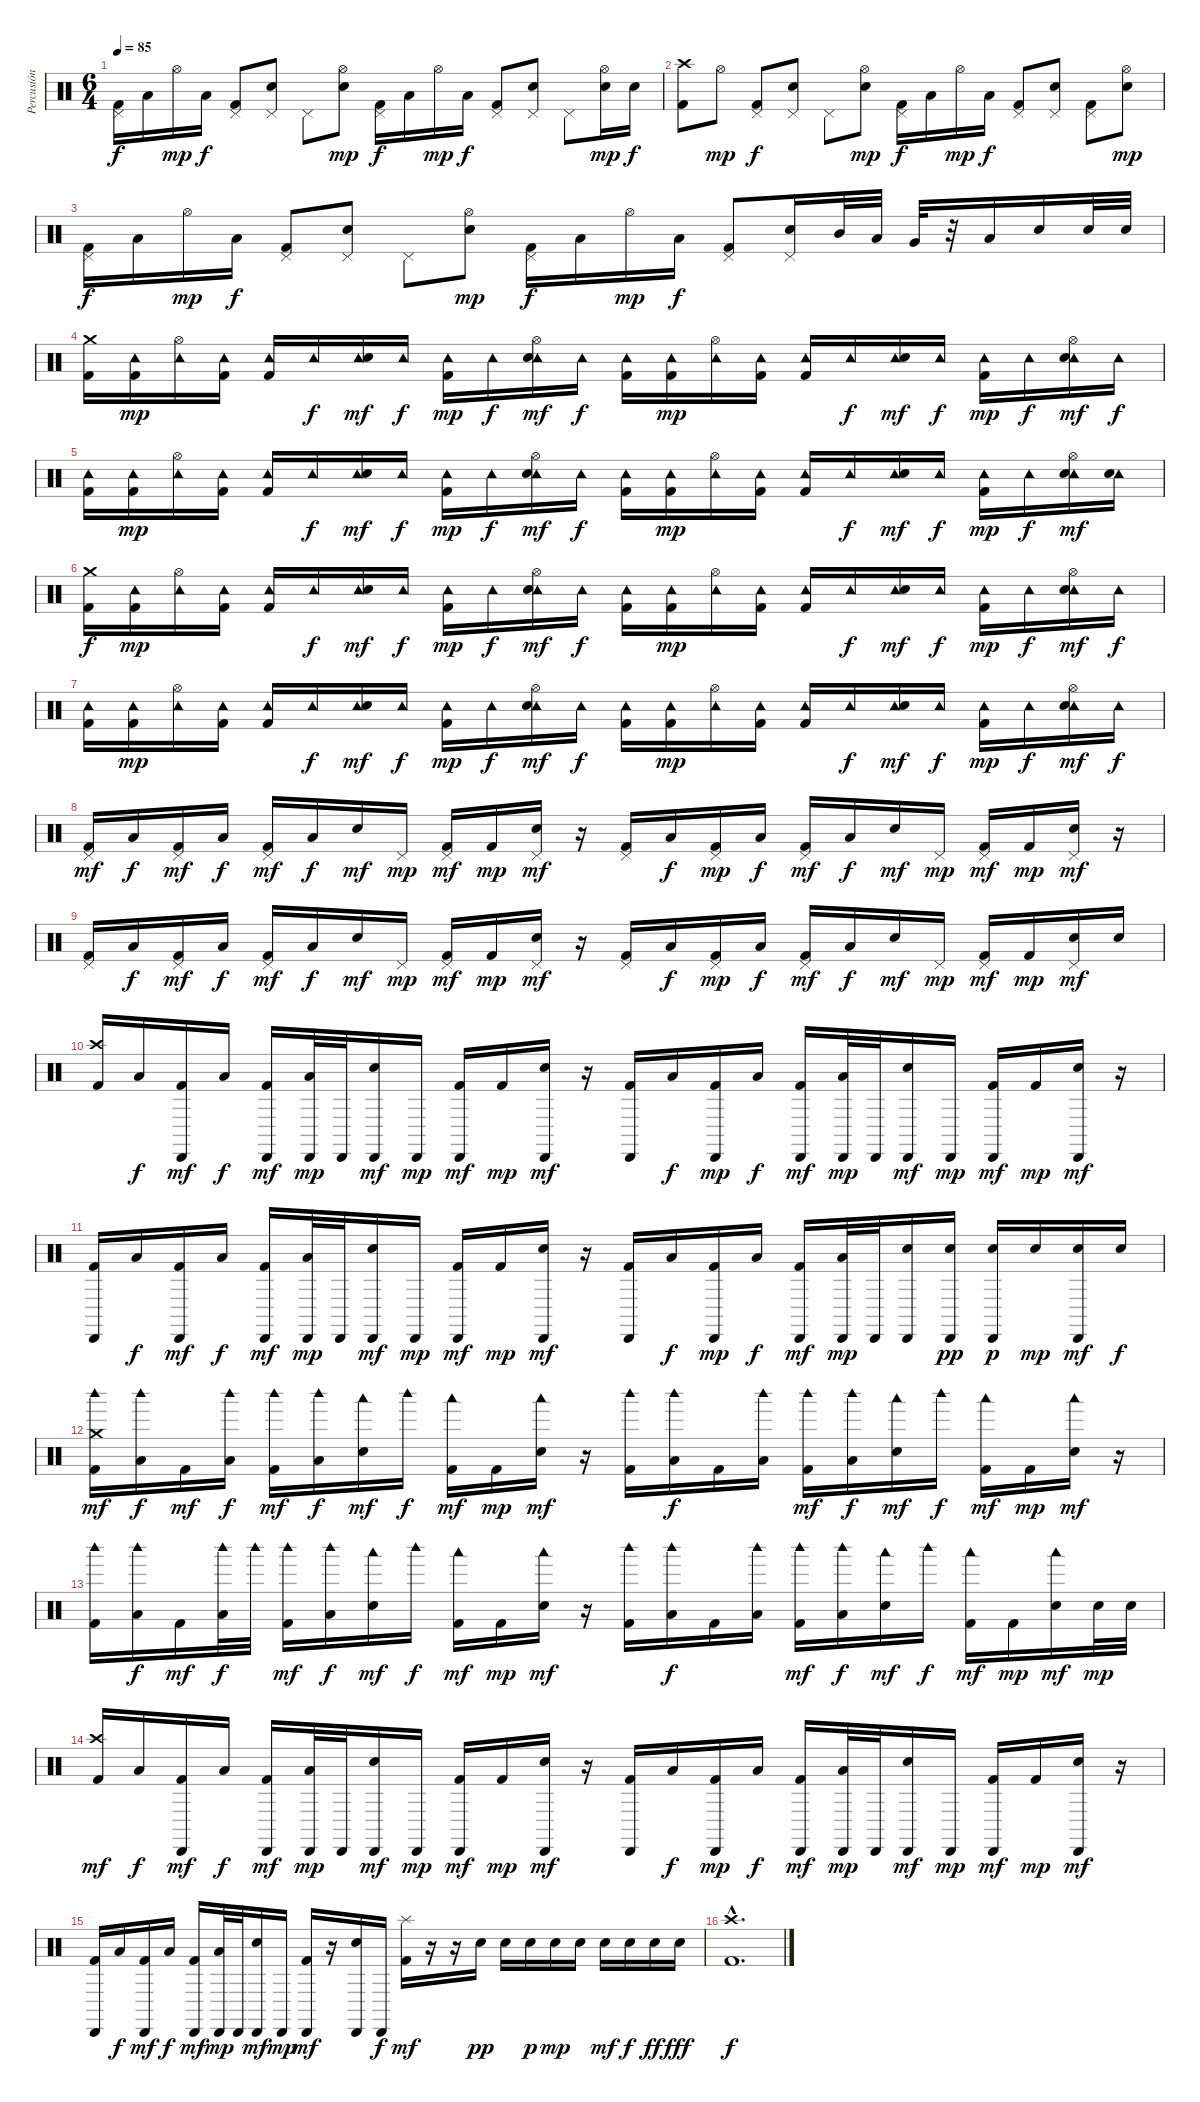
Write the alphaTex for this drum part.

\track ("Percusión" "Percusión") {instrument percussion}
\staff {score}
\articulation defaults
\ts (6 4)
\tempo 85
\clef neutral
\ks c
("Pedal Hi-Hat (hit)" "Kick (hit) 2").16{dy f} "Low Floor Tom (hit)".16 "Hi-Hat (open)".16{dy mp} "Low Floor Tom (hit)".16{dy f} ("Pedal Hi-Hat (hit)" "Kick (hit) 2").8 ("Pedal Hi-Hat (hit)" "Electric Snare (hit)").8 "Pedal Hi-Hat (hit)".8 ("Hi-Hat (open)" "Electric Snare (hit)").8{dy mp} ("Pedal Hi-Hat (hit)" "Kick (hit) 2").16{dy f} "Low Floor Tom (hit)".16 "Hi-Hat (open)".16{dy mp} "Low Floor Tom (hit)".16{dy f} ("Pedal Hi-Hat (hit)" "Kick (hit) 2").8 ("Pedal Hi-Hat (hit)" "Electric Snare (hit)").8 "Pedal Hi-Hat (hit)".8 ("Hi-Hat (open)" "Electric Snare (hit)").16{dy mp} "Electric Snare (hit)".16{dy f} |
("Crash high (hit)" "Kick (hit) 2").8 "Hi-Hat (open)".8{dy mp} ("Pedal Hi-Hat (hit)" "Kick (hit) 2").8{dy f} ("Pedal Hi-Hat (hit)" "Electric Snare (hit)").8 "Pedal Hi-Hat (hit)".8 ("Hi-Hat (open)" "Electric Snare (hit)").8{dy mp} ("Pedal Hi-Hat (hit)" "Kick (hit) 2").16{dy f} "Low Floor Tom (hit)".16 "Hi-Hat (open)".16{dy mp} "Low Floor Tom (hit)".16{dy f} ("Pedal Hi-Hat (hit)" "Kick (hit) 2").8 ("Pedal Hi-Hat (hit)" "Electric Snare (hit)").8 ("Pedal Hi-Hat (hit)" "Kick (hit) 2").8 ("Hi-Hat (open)" "Electric Snare (hit)").8{dy mp} |
("Pedal Hi-Hat (hit)" "Kick (hit) 2").16{dy f} "Low Floor Tom (hit)".16 "Hi-Hat (open)".16{dy mp} "Low Floor Tom (hit)".16{dy f} ("Pedal Hi-Hat (hit)" "Kick (hit) 2").8 ("Pedal Hi-Hat (hit)" "Electric Snare (hit)").8 "Pedal Hi-Hat (hit)".8 ("Hi-Hat (open)" "Electric Snare (hit)").8{dy mp} ("Pedal Hi-Hat (hit)" "Kick (hit) 2").16{dy f} "Low Floor Tom (hit)".16 "Hi-Hat (open)".16{dy mp} "Low Floor Tom (hit)".16{dy f} ("Pedal Hi-Hat (hit)" "Kick (hit) 2").8 ("Pedal Hi-Hat (hit)" "Electric Snare (hit)").16 "Mid Tom (hit)".32 "Low Tom (hit)".32 "Very Low Tom (hit)".32 r.32 "Low Floor Tom (hit)".16 "Electric Snare (hit)".16 "Electric Snare (hit)".32 "Electric Snare (hit)".32 |
("Crash medium (hit)" "Kick (hit) 2").16 ("Tambourine (hit)" "Kick (hit) 2").16{dy mp} ("Hi-Hat (open)" "Tambourine (hit)").16 ("Tambourine (hit)" "Kick (hit) 2").16 ("Tambourine (hit)" "Kick (hit) 2").16 "Tambourine (hit)".16{dy f} ("Tambourine (hit)" "Electric Snare (hit)").16{dy mf} "Tambourine (hit)".16{dy f} ("Tambourine (hit)" "Kick (hit) 2").16{dy mp} "Tambourine (hit)".16{dy f} ("Hi-Hat (open)" "Tambourine (hit)" "Electric Snare (hit)").16{dy mf} "Tambourine (hit)".16{dy f} ("Tambourine (hit)" "Kick (hit) 2").16 ("Tambourine (hit)" "Kick (hit) 2").16{dy mp} ("Hi-Hat (open)" "Tambourine (hit)").16 ("Tambourine (hit)" "Kick (hit) 2").16 ("Tambourine (hit)" "Kick (hit) 2").16 "Tambourine (hit)".16{dy f} ("Tambourine (hit)" "Electric Snare (hit)").16{dy mf} "Tambourine (hit)".16{dy f} ("Tambourine (hit)" "Kick (hit) 2").16{dy mp} "Tambourine (hit)".16{dy f} ("Hi-Hat (open)" "Tambourine (hit)" "Electric Snare (hit)").16{dy mf} "Tambourine (hit)".16{dy f} |
("Tambourine (hit)" "Kick (hit) 2").16 ("Tambourine (hit)" "Kick (hit) 2").16{dy mp} ("Hi-Hat (open)" "Tambourine (hit)").16 ("Tambourine (hit)" "Kick (hit) 2").16 ("Tambourine (hit)" "Kick (hit) 2").16 "Tambourine (hit)".16{dy f} ("Tambourine (hit)" "Electric Snare (hit)").16{dy mf} "Tambourine (hit)".16{dy f} ("Tambourine (hit)" "Kick (hit) 2").16{dy mp} "Tambourine (hit)".16{dy f} ("Hi-Hat (open)" "Tambourine (hit)" "Electric Snare (hit)").16{dy mf} "Tambourine (hit)".16{dy f} ("Tambourine (hit)" "Kick (hit) 2").16 ("Tambourine (hit)" "Kick (hit) 2").16{dy mp} ("Hi-Hat (open)" "Tambourine (hit)").16 ("Tambourine (hit)" "Kick (hit) 2").16 ("Tambourine (hit)" "Kick (hit) 2").16 "Tambourine (hit)".16{dy f} ("Tambourine (hit)" "Electric Snare (hit)").16{dy mf} "Tambourine (hit)".16{dy f} ("Tambourine (hit)" "Kick (hit) 2").16{dy mp} "Tambourine (hit)".16{dy f} ("Hi-Hat (open)" "Tambourine (hit)" "Electric Snare (hit)").16{dy mf} ("Tambourine (hit)" "Electric Snare (hit)").16 |
("Crash medium (hit)" "Kick (hit) 2").16{dy f} ("Tambourine (hit)" "Kick (hit) 2").16{dy mp} ("Hi-Hat (open)" "Tambourine (hit)").16 ("Tambourine (hit)" "Kick (hit) 2").16 ("Tambourine (hit)" "Kick (hit) 2").16 "Tambourine (hit)".16{dy f} ("Tambourine (hit)" "Electric Snare (hit)").16{dy mf} "Tambourine (hit)".16{dy f} ("Tambourine (hit)" "Kick (hit) 2").16{dy mp} "Tambourine (hit)".16{dy f} ("Hi-Hat (open)" "Tambourine (hit)" "Electric Snare (hit)").16{dy mf} "Tambourine (hit)".16{dy f} ("Tambourine (hit)" "Kick (hit) 2").16 ("Tambourine (hit)" "Kick (hit) 2").16{dy mp} ("Hi-Hat (open)" "Tambourine (hit)").16 ("Tambourine (hit)" "Kick (hit) 2").16 ("Tambourine (hit)" "Kick (hit) 2").16 "Tambourine (hit)".16{dy f} ("Tambourine (hit)" "Electric Snare (hit)").16{dy mf} "Tambourine (hit)".16{dy f} ("Tambourine (hit)" "Kick (hit) 2").16{dy mp} "Tambourine (hit)".16{dy f} ("Hi-Hat (open)" "Tambourine (hit)" "Electric Snare (hit)").16{dy mf} "Tambourine (hit)".16{dy f} |
("Tambourine (hit)" "Kick (hit) 2").16 ("Tambourine (hit)" "Kick (hit) 2").16{dy mp} ("Hi-Hat (open)" "Tambourine (hit)").16 ("Tambourine (hit)" "Kick (hit) 2").16 ("Tambourine (hit)" "Kick (hit) 2").16 "Tambourine (hit)".16{dy f} ("Tambourine (hit)" "Electric Snare (hit)").16{dy mf} "Tambourine (hit)".16{dy f} ("Tambourine (hit)" "Kick (hit) 2").16{dy mp} "Tambourine (hit)".16{dy f} ("Hi-Hat (open)" "Tambourine (hit)" "Electric Snare (hit)").16{dy mf} "Tambourine (hit)".16{dy f} ("Tambourine (hit)" "Kick (hit) 2").16 ("Tambourine (hit)" "Kick (hit) 2").16{dy mp} ("Hi-Hat (open)" "Tambourine (hit)").16 ("Tambourine (hit)" "Kick (hit) 2").16 ("Tambourine (hit)" "Kick (hit) 2").16 "Tambourine (hit)".16{dy f} ("Tambourine (hit)" "Electric Snare (hit)").16{dy mf} "Tambourine (hit)".16{dy f} ("Tambourine (hit)" "Kick (hit) 2").16{dy mp} "Tambourine (hit)".16{dy f} ("Hi-Hat (open)" "Tambourine (hit)" "Electric Snare (hit)").16{dy mf} "Tambourine (hit)".16{dy f} |
("Pedal Hi-Hat (hit)" "Kick (hit) 2").16{dy mf} "Low Floor Tom (hit)".16{dy f} ("Pedal Hi-Hat (hit)" "Kick (hit) 2").16{dy mf} "Low Floor Tom (hit)".16{dy f} ("Pedal Hi-Hat (hit)" "Kick (hit) 2").16{dy mf} "Low Floor Tom (hit)".16{dy f} "Electric Snare (hit)".16{dy mf} "Pedal Hi-Hat (hit)".16{dy mp} ("Pedal Hi-Hat (hit)" "Kick (hit) 2").16{dy mf} "Kick (hit) 2".16{dy mp} ("Pedal Hi-Hat (hit)" "Electric Snare (hit)").16{dy mf} r.16 ("Pedal Hi-Hat (hit)" "Kick (hit) 2").16 "Low Floor Tom (hit)".16{dy f} ("Pedal Hi-Hat (hit)" "Kick (hit) 2").16{dy mp} "Low Floor Tom (hit)".16{dy f} ("Pedal Hi-Hat (hit)" "Kick (hit) 2").16{dy mf} "Low Floor Tom (hit)".16{dy f} "Electric Snare (hit)".16{dy mf} "Pedal Hi-Hat (hit)".16{dy mp} ("Pedal Hi-Hat (hit)" "Kick (hit) 2").16{dy mf} "Kick (hit) 2".16{dy mp} ("Pedal Hi-Hat (hit)" "Electric Snare (hit)").16{dy mf} r.16 |
("Pedal Hi-Hat (hit)" "Kick (hit) 2").16 "Low Floor Tom (hit)".16{dy f} ("Pedal Hi-Hat (hit)" "Kick (hit) 2").16{dy mf} "Low Floor Tom (hit)".16{dy f} ("Pedal Hi-Hat (hit)" "Kick (hit) 2").16{dy mf} "Low Floor Tom (hit)".16{dy f} "Electric Snare (hit)".16{dy mf} "Pedal Hi-Hat (hit)".16{dy mp} ("Pedal Hi-Hat (hit)" "Kick (hit) 2").16{dy mf} "Kick (hit) 2".16{dy mp} ("Pedal Hi-Hat (hit)" "Electric Snare (hit)").16{dy mf} r.16 ("Pedal Hi-Hat (hit)" "Kick (hit) 2").16 "Low Floor Tom (hit)".16{dy f} ("Pedal Hi-Hat (hit)" "Kick (hit) 2").16{dy mp} "Low Floor Tom (hit)".16{dy f} ("Pedal Hi-Hat (hit)" "Kick (hit) 2").16{dy mf} "Low Floor Tom (hit)".16{dy f} "Electric Snare (hit)".16{dy mf} "Pedal Hi-Hat (hit)".16{dy mp} ("Pedal Hi-Hat (hit)" "Kick (hit) 2").16{dy mf} "Kick (hit) 2".16{dy mp} ("Pedal Hi-Hat (hit)" "Electric Snare (hit)").16{dy mf} "Electric Snare (hit)".16 |
("Crash high (hit)" "Kick (hit) 2").16 "Low Floor Tom (hit)".16{dy f} ("Cabasa (hit)" "Kick (hit) 2").16{dy mf} "Low Floor Tom (hit)".16{dy f} ("Cabasa (hit)" "Kick (hit) 2").16{dy mf} ("Cabasa (hit)" "Low Floor Tom (hit)").32{dy mp} "Cabasa (hit)".32 ("Cabasa (hit)" "Electric Snare (hit)").16{dy mf} "Cabasa (hit)".16{dy mp} ("Cabasa (hit)" "Kick (hit) 2").16{dy mf} "Kick (hit) 2".16{dy mp} ("Cabasa (hit)" "Electric Snare (hit)").16{dy mf} r.16 ("Cabasa (hit)" "Kick (hit) 2").16 "Low Floor Tom (hit)".16{dy f} ("Cabasa (hit)" "Kick (hit) 2").16{dy mp} "Low Floor Tom (hit)".16{dy f} ("Cabasa (hit)" "Kick (hit) 2").16{dy mf} ("Cabasa (hit)" "Low Floor Tom (hit)").32{dy mp} "Cabasa (hit)".32 ("Cabasa (hit)" "Electric Snare (hit)").16{dy mf} "Cabasa (hit)".16{dy mp} ("Cabasa (hit)" "Kick (hit) 2").16{dy mf} "Kick (hit) 2".16{dy mp} ("Cabasa (hit)" "Electric Snare (hit)").16{dy mf} r.16 |
("Cabasa (hit)" "Kick (hit) 2").16 "Low Floor Tom (hit)".16{dy f} ("Cabasa (hit)" "Kick (hit) 2").16{dy mf} "Low Floor Tom (hit)".16{dy f} ("Cabasa (hit)" "Kick (hit) 2").16{dy mf} ("Cabasa (hit)" "Low Floor Tom (hit)").32{dy mp} "Cabasa (hit)".32 ("Cabasa (hit)" "Electric Snare (hit)").16{dy mf} "Cabasa (hit)".16{dy mp} ("Cabasa (hit)" "Kick (hit) 2").16{dy mf} "Kick (hit) 2".16{dy mp} ("Cabasa (hit)" "Electric Snare (hit)").16{dy mf} r.16 ("Cabasa (hit)" "Kick (hit) 2").16 "Low Floor Tom (hit)".16{dy f} ("Cabasa (hit)" "Kick (hit) 2").16{dy mp} "Low Floor Tom (hit)".16{dy f} ("Cabasa (hit)" "Kick (hit) 2").16{dy mf} ("Cabasa (hit)" "Low Floor Tom (hit)").32{dy mp} "Cabasa (hit)".32 ("Cabasa (hit)" "Electric Snare (hit)").16 ("Cabasa (hit)" "Electric Snare (hit)").16{dy pp} ("Cabasa (hit)" "Electric Snare (hit)").16{dy p} "Electric Snare (hit)".16{dy mp} ("Cabasa (hit)" "Electric Snare (hit)").16{dy mf} "Electric Snare (hit)".16{dy f} |
("Crash medium (hit)" "Woodblock high (hit)" "Kick (hit) 2").16{dy mf} ("Woodblock high (hit)" "Low Floor Tom (hit)").16{dy f} "Kick (hit) 2".16{dy mf} ("Woodblock high (hit)" "Low Floor Tom (hit)").16{dy f} ("Woodblock high (hit)" "Kick (hit) 2").16{dy mf} ("Woodblock high (hit)" "Low Floor Tom (hit)").16{dy f} ("Woodblock low (hit)" "Electric Snare (hit)").16{dy mf} "Woodblock high (hit)".16{dy f} ("Woodblock low (hit)" "Kick (hit) 2").16{dy mf} "Kick (hit) 2".16{dy mp} ("Woodblock low (hit)" "Electric Snare (hit)").16{dy mf} r.16 ("Woodblock high (hit)" "Kick (hit) 2").16 ("Woodblock high (hit)" "Low Floor Tom (hit)").16{dy f} "Kick (hit) 2".16 ("Woodblock high (hit)" "Low Floor Tom (hit)").16 ("Woodblock high (hit)" "Kick (hit) 2").16{dy mf} ("Woodblock high (hit)" "Low Floor Tom (hit)").16{dy f} ("Woodblock low (hit)" "Electric Snare (hit)").16{dy mf} "Woodblock high (hit)".16{dy f} ("Woodblock low (hit)" "Kick (hit) 2").16{dy mf} "Kick (hit) 2".16{dy mp} ("Woodblock low (hit)" "Electric Snare (hit)").16{dy mf} r.16 |
("Woodblock high (hit)" "Kick (hit) 2").16 ("Woodblock high (hit)" "Low Floor Tom (hit)").16{dy f} "Kick (hit) 2".16{dy mf} ("Woodblock high (hit)" "Low Floor Tom (hit)").32{dy f} "Woodblock high (hit)".32 ("Woodblock high (hit)" "Kick (hit) 2").16{dy mf} ("Woodblock high (hit)" "Low Floor Tom (hit)").16{dy f} ("Woodblock low (hit)" "Electric Snare (hit)").16{dy mf} "Woodblock high (hit)".16{dy f} ("Woodblock low (hit)" "Kick (hit) 2").16{dy mf} "Kick (hit) 2".16{dy mp} ("Woodblock low (hit)" "Electric Snare (hit)").16{dy mf} r.16 ("Woodblock high (hit)" "Kick (hit) 2").16 ("Woodblock high (hit)" "Low Floor Tom (hit)").16{dy f} "Kick (hit) 2".16 ("Woodblock high (hit)" "Low Floor Tom (hit)").16 ("Woodblock high (hit)" "Kick (hit) 2").16{dy mf} ("Woodblock high (hit)" "Low Floor Tom (hit)").16{dy f} ("Woodblock low (hit)" "Electric Snare (hit)").16{dy mf} "Woodblock high (hit)".16{dy f} ("Woodblock low (hit)" "Kick (hit) 2").16{dy mf} "Kick (hit) 2".16{dy mp} ("Woodblock low (hit)" "Electric Snare (hit)").16{dy mf} "Electric Snare (hit)".32{dy mp} "Electric Snare (hit)".32 |
("Crash high (hit)" "Kick (hit) 2").16{dy mf} "Low Floor Tom (hit)".16{dy f} ("Cabasa (hit)" "Kick (hit) 2").16{dy mf} "Low Floor Tom (hit)".16{dy f} ("Cabasa (hit)" "Kick (hit) 2").16{dy mf} ("Cabasa (hit)" "Low Floor Tom (hit)").32{dy mp} "Cabasa (hit)".32 ("Cabasa (hit)" "Electric Snare (hit)").16{dy mf} "Cabasa (hit)".16{dy mp} ("Cabasa (hit)" "Kick (hit) 2").16{dy mf} "Kick (hit) 2".16{dy mp} ("Cabasa (hit)" "Electric Snare (hit)").16{dy mf} r.16 ("Cabasa (hit)" "Kick (hit) 2").16 "Low Floor Tom (hit)".16{dy f} ("Cabasa (hit)" "Kick (hit) 2").16{dy mp} "Low Floor Tom (hit)".16{dy f} ("Cabasa (hit)" "Kick (hit) 2").16{dy mf} ("Cabasa (hit)" "Low Floor Tom (hit)").32{dy mp} "Cabasa (hit)".32 ("Cabasa (hit)" "Electric Snare (hit)").16{dy mf} "Cabasa (hit)".16{dy mp} ("Cabasa (hit)" "Kick (hit) 2").16{dy mf} "Kick (hit) 2".16{dy mp} ("Cabasa (hit)" "Electric Snare (hit)").16{dy mf} r.16 |
("Cabasa (hit)" "Kick (hit) 2").16 "Low Floor Tom (hit)".16{dy f} ("Cabasa (hit)" "Kick (hit) 2").16{dy mf} "Low Floor Tom (hit)".16{dy f} ("Cabasa (hit)" "Kick (hit) 2").16{dy mf} ("Cabasa (hit)" "Low Floor Tom (hit)").32{dy mp} "Cabasa (hit)".32 ("Cabasa (hit)" "Electric Snare (hit)").16{dy mf} "Cabasa (hit)".16{dy mp} ("Cabasa (hit)" "Kick (hit) 2").16{dy mf} r.16 ("Cabasa (hit)" "Electric Snare (hit)").16 "Cabasa (hit)".16{dy f} ("Splash (hit)" "Kick (hit) 2").16{dy mf} r.16 r.16 "Electric Snare (hit)".16{dy pp} "Electric Snare (hit)".16 "Electric Snare (hit)".16{dy p} "Electric Snare (hit)".16{dy mp} "Electric Snare (hit)".16 "Electric Snare (hit)".16{dy mf} "Electric Snare (hit)".16{dy f} "Electric Snare (hit)".16{dy ff} "Electric Snare (hit)".16{dy fff} |
("Crash high (hit)"{hac} "Kick (hit) 2"{hac}).1{d dy f}
